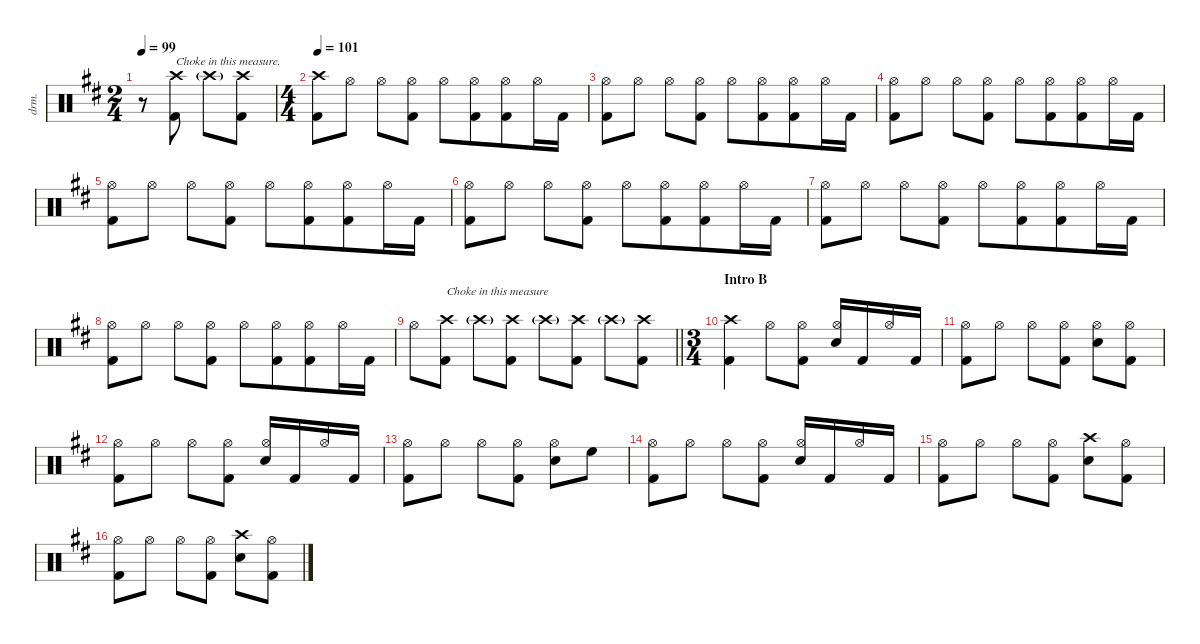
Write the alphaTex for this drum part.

\defaultSystemsLayout 4
\hideDynamics
\bracketExtendMode nobrackets
\otherSystemsTrackNameOrientation horizontal
\track ("Lars Ulrich" "drm.") {defaultSystemsLayout 4 instrument percussion}
\staff {score}
\articulation defaults
\ts (2 4)
\beaming (8 2 2)
\tempo 99
\clef neutral
\ks bminor
r.8{dy f beam Down} ("Crash high (hit)"{acc forcenatural} "Kick (hit) 2"{acc forcenatural}).8{txt "Choke in this measure." beam Down} "Crash high (hit)"{g acc forcenatural}.8{dy pp beam Down} ("Crash high (hit)"{acc forcenatural} "Kick (hit) 2"{acc forcenatural}).8{dy f beam Down} |
\ts (4 4)
\beaming (8 2 2 4)
\tempo 101
("Crash high (hit)"{acc forcenatural} "Kick (hit) 2"{acc forcenatural}).8{beam Down} "Hi-Hat (open)"{acc forcenatural}.8{dy mp beam Down} "Hi-Hat (open)"{acc forcenatural}.8{beam Down} ("Hi-Hat (open)"{acc forcenatural} "Kick (hit) 2"{acc forcenatural}).8{beam Down} "Hi-Hat (open)"{acc forcenatural}.8{beam Down} ("Hi-Hat (open)"{acc forcenatural} "Kick (hit) 2"{acc forcenatural}).8{beam Down} ("Hi-Hat (open)"{acc forcenatural} "Kick (hit) 2"{acc forcenatural}).8{beam Down} "Hi-Hat (open)"{acc forcenatural}.16{beam Down} "Kick (hit) 2"{acc forcenatural}.16{dy fff beam Down} |
("Hi-Hat (open)"{acc forcenatural} "Kick (hit) 2"{acc forcenatural}).8{dy mp beam Down} "Hi-Hat (open)"{acc forcenatural}.8{beam Down} "Hi-Hat (open)"{acc forcenatural}.8{beam Down} ("Hi-Hat (open)"{acc forcenatural} "Kick (hit) 2"{acc forcenatural}).8{beam Down} "Hi-Hat (open)"{acc forcenatural}.8{beam Down} ("Hi-Hat (open)"{acc forcenatural} "Kick (hit) 2"{acc forcenatural}).8{beam Down} ("Hi-Hat (open)"{acc forcenatural} "Kick (hit) 2"{acc forcenatural}).8{beam Down} "Hi-Hat (open)"{acc forcenatural}.16{beam Down} "Kick (hit) 2"{acc forcenatural}.16{dy fff beam Down} |
("Hi-Hat (open)"{acc forcenatural} "Kick (hit) 2"{acc forcenatural}).8{dy mp beam Down} "Hi-Hat (open)"{acc forcenatural}.8{beam Down} "Hi-Hat (open)"{acc forcenatural}.8{beam Down} ("Hi-Hat (open)"{acc forcenatural} "Kick (hit) 2"{acc forcenatural}).8{beam Down} "Hi-Hat (open)"{acc forcenatural}.8{beam Down} ("Hi-Hat (open)"{acc forcenatural} "Kick (hit) 2"{acc forcenatural}).8{beam Down} ("Hi-Hat (open)"{acc forcenatural} "Kick (hit) 2"{acc forcenatural}).8{beam Down} "Hi-Hat (open)"{acc forcenatural}.16{beam Down} "Kick (hit) 2"{acc forcenatural}.16{dy fff beam Down} |
("Hi-Hat (open)"{acc forcenatural} "Kick (hit) 2"{acc forcenatural}).8{dy mp beam Down} "Hi-Hat (open)"{acc forcenatural}.8{beam Down} "Hi-Hat (open)"{acc forcenatural}.8{beam Down} ("Hi-Hat (open)"{acc forcenatural} "Kick (hit) 2"{acc forcenatural}).8{beam Down} "Hi-Hat (open)"{acc forcenatural}.8{beam Down} ("Hi-Hat (open)"{acc forcenatural} "Kick (hit) 2"{acc forcenatural}).8{beam Down} ("Hi-Hat (open)"{acc forcenatural} "Kick (hit) 2"{acc forcenatural}).8{beam Down} "Hi-Hat (open)"{acc forcenatural}.16{beam Down} "Kick (hit) 2"{acc forcenatural}.16{dy fff beam Down} |
("Hi-Hat (open)"{acc forcenatural} "Kick (hit) 2"{acc forcenatural}).8{dy mp beam Down} "Hi-Hat (open)"{acc forcenatural}.8{beam Down} "Hi-Hat (open)"{acc forcenatural}.8{beam Down} ("Hi-Hat (open)"{acc forcenatural} "Kick (hit) 2"{acc forcenatural}).8{beam Down} "Hi-Hat (open)"{acc forcenatural}.8{beam Down} ("Hi-Hat (open)"{acc forcenatural} "Kick (hit) 2"{acc forcenatural}).8{beam Down} ("Hi-Hat (open)"{acc forcenatural} "Kick (hit) 2"{acc forcenatural}).8{beam Down} "Hi-Hat (open)"{acc forcenatural}.16{beam Down} "Kick (hit) 2"{acc forcenatural}.16{dy fff beam Down} |
("Hi-Hat (open)"{acc forcenatural} "Kick (hit) 2"{acc forcenatural}).8{dy mp beam Down} "Hi-Hat (open)"{acc forcenatural}.8{beam Down} "Hi-Hat (open)"{acc forcenatural}.8{beam Down} ("Hi-Hat (open)"{acc forcenatural} "Kick (hit) 2"{acc forcenatural}).8{beam Down} "Hi-Hat (open)"{acc forcenatural}.8{beam Down} ("Hi-Hat (open)"{acc forcenatural} "Kick (hit) 2"{acc forcenatural}).8{beam Down} ("Hi-Hat (open)"{acc forcenatural} "Kick (hit) 2"{acc forcenatural}).8{beam Down} "Hi-Hat (open)"{acc forcenatural}.16{beam Down} "Kick (hit) 2"{acc forcenatural}.16{dy fff beam Down} |
("Hi-Hat (open)"{acc forcenatural} "Kick (hit) 2"{acc forcenatural}).8{dy mp beam Down} "Hi-Hat (open)"{acc forcenatural}.8{beam Down} "Hi-Hat (open)"{acc forcenatural}.8{beam Down} ("Hi-Hat (open)"{acc forcenatural} "Kick (hit) 2"{acc forcenatural}).8{beam Down} "Hi-Hat (open)"{acc forcenatural}.8{beam Down} ("Hi-Hat (open)"{acc forcenatural} "Kick (hit) 2"{acc forcenatural}).8{beam Down} ("Hi-Hat (open)"{acc forcenatural} "Kick (hit) 2"{acc forcenatural}).8{beam Down} "Hi-Hat (open)"{acc forcenatural}.16{beam Down} "Kick (hit) 2"{acc forcenatural}.16{dy fff beam Down} |
\beaming (8 2 2 2 2)
\barLineRight lightlight "Hi-Hat (open)"{acc forcenatural}.8{dy mp beam Down}
("Crash high (hit)"{acc forcenatural} "Kick (hit) 2"{acc forcenatural}).8{txt "Choke in this measure" dy f beam Down} "Crash high (hit)"{g acc forcenatural}.8{dy pp beam Down} ("Crash high (hit)"{acc forcenatural} "Kick (hit) 2"{acc forcenatural}).8{dy f beam Down} "Crash high (hit)"{g acc forcenatural}.8{dy pp beam Down} ("Crash high (hit)"{acc forcenatural} "Kick (hit) 2"{acc forcenatural}).8{dy f beam Down} "Crash high (hit)"{g acc forcenatural}.8{dy pp beam Down} ("Crash high (hit)"{acc forcenatural} "Kick (hit) 2"{acc forcenatural}).8{dy f beam Down} |
\ts (3 4)
\beaming (8 2 2 2)
\section ("" "Intro B")
("Crash high (hit)"{acc forcenatural} "Kick (hit) 2"{acc forcenatural}).4{beam Down} "Hi-Hat (open)"{acc forcenatural}.8{dy mf beam Down} ("Hi-Hat (open)"{acc forcenatural} "Kick (hit) 2"{acc forcenatural}).8{beam Down} ("Hi-Hat (open)"{acc forcenatural} "Snare (hit) 2"{acc forcenatural}).16{beam Up} "Kick (hit) 2"{acc forcenatural}.16{dy fff beam Up} "Hi-Hat (open)"{acc forcenatural}.16{dy mf beam Up} "Kick (hit) 2"{acc forcenatural}.16{dy fff beam Up} |
("Hi-Hat (open)"{acc forcenatural} "Kick (hit) 2"{acc forcenatural}).8{dy mf beam Down} "Hi-Hat (open)"{acc forcenatural}.8{beam Down} "Hi-Hat (open)"{acc forcenatural}.8{beam Down} ("Hi-Hat (open)"{acc forcenatural} "Kick (hit) 2"{acc forcenatural}).8{beam Down} ("Hi-Hat (open)"{acc forcenatural} "Snare (hit) 2"{acc forcenatural}).8{beam Down} ("Hi-Hat (open)"{acc forcenatural} "Kick (hit) 2"{acc forcenatural}).8{beam Down} |
("Hi-Hat (open)"{acc forcenatural} "Kick (hit) 2"{acc forcenatural}).8{beam Down} "Hi-Hat (open)"{acc forcenatural}.8{beam Down} "Hi-Hat (open)"{acc forcenatural}.8{beam Down} ("Hi-Hat (open)"{acc forcenatural} "Kick (hit) 2"{acc forcenatural}).8{beam Down} ("Hi-Hat (open)"{acc forcenatural} "Snare (hit) 2"{acc forcenatural}).16{beam Up} "Kick (hit) 2"{acc forcenatural}.16{dy fff beam Up} "Hi-Hat (open)"{acc forcenatural}.16{dy mf beam Up} "Kick (hit) 2"{acc forcenatural}.16{dy fff beam Up} |
("Hi-Hat (open)"{acc forcenatural} "Kick (hit) 2"{acc forcenatural}).8{dy mf beam Down} "Hi-Hat (open)"{acc forcenatural}.8{beam Down} "Hi-Hat (open)"{acc forcenatural}.8{beam Down} ("Hi-Hat (open)"{acc forcenatural} "Kick (hit) 2"{acc forcenatural}).8{beam Down} ("Hi-Hat (open)"{acc forcenatural} "Snare (hit) 2"{acc forcenatural}).8{beam Down} "High Floor Tom (hit)"{acc forcenatural}.8{dy fff beam Down} |
("Hi-Hat (open)"{acc forcenatural} "Kick (hit) 2"{acc forcenatural}).8{dy mf beam Down} "Hi-Hat (open)"{acc forcenatural}.8{beam Down} "Hi-Hat (open)"{acc forcenatural}.8{beam Down} ("Hi-Hat (open)"{acc forcenatural} "Kick (hit) 2"{acc forcenatural}).8{beam Down} ("Hi-Hat (open)"{acc forcenatural} "Snare (hit) 2"{acc forcenatural}).16{beam Up} "Kick (hit) 2"{acc forcenatural}.16{dy fff beam Up} "Hi-Hat (open)"{acc forcenatural}.16{dy mf beam Up} "Kick (hit) 2"{acc forcenatural}.16{dy fff beam Up} |
("Hi-Hat (open)"{acc forcenatural} "Kick (hit) 2"{acc forcenatural}).8{dy mf beam Down} "Hi-Hat (open)"{acc forcenatural}.8{beam Down} "Hi-Hat (open)"{acc forcenatural}.8{beam Down} ("Hi-Hat (open)"{acc forcenatural} "Kick (hit) 2"{acc forcenatural}).8{beam Down} ("Crash high (hit)"{acc forcenatural} "Snare (hit) 2"{acc forcenatural}).8{dy f beam Down} ("Hi-Hat (open)"{acc forcenatural} "Kick (hit) 2"{acc forcenatural}).8{dy mf beam Down} |
("Hi-Hat (open)"{acc forcenatural} "Kick (hit) 2"{acc forcenatural}).8{beam Down} "Hi-Hat (open)"{acc forcenatural}.8{beam Down} "Hi-Hat (open)"{acc forcenatural}.8{beam Down} ("Hi-Hat (open)"{acc forcenatural} "Kick (hit) 2"{acc forcenatural}).8{beam Down} ("Crash high (hit)"{acc forcenatural} "Snare (hit) 2"{acc forcenatural}).8{dy f beam Down} ("Hi-Hat (open)"{acc forcenatural} "Kick (hit) 2"{acc forcenatural}).8{dy mf beam Down}
